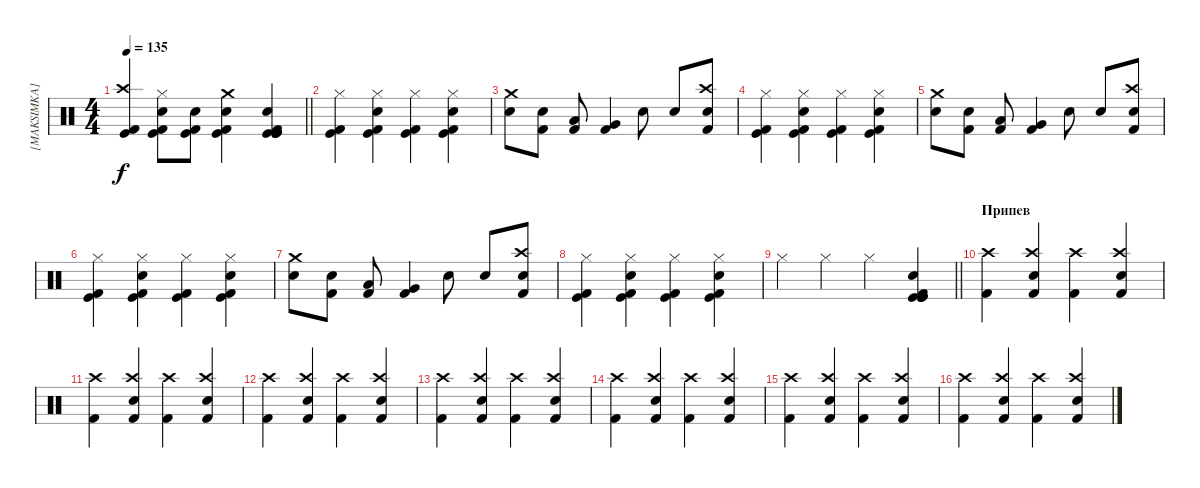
\track ("[MAKSIMKA]" "[MAKSIMKA]") {instrument percussion}
\staff {score}
\articulation defaults
\ts (4 4)
\tempo 135
\clef neutral
\barLineRight lightlight
\ks c
("Kick (hit) 2" "Crash high (hit)" "Kick (hit)").4{dy f} ("Kick (hit) 2" "Snare (hit) 2" "Hi-Hat (closed)" "Kick (hit)").8 ("Kick (hit) 2" "Snare (hit) 2" "Kick (hit)").8 ("Kick (hit) 2" "Snare (hit) 2" "Crash medium (hit)" "Kick (hit)").4 ("Kick (hit) 2" "Snare (hit) 2" "Kick (hit)" "Kick (hit)" "Kick (hit)" "Kick (hit)").4 |
("Kick (hit) 2" "Hi-Hat (closed)" "Kick (hit)").4 ("Kick (hit) 2" "Snare (hit) 2" "Hi-Hat (closed)" "Kick (hit)").4 ("Kick (hit) 2" "Hi-Hat (closed)" "Kick (hit)").4 ("Kick (hit) 2" "Snare (hit) 2" "Hi-Hat (closed)" "Kick (hit)").4 |
("Crash medium (hit)" "Snare (hit) 2").8 ("Kick (hit) 2" "Snare (hit) 2").8 ("Kick (hit) 2" "Low Tom (hit)").8 ("Kick (hit) 2" "Very Low Tom (hit)").4 "Snare (hit) 2".8 "Snare (hit) 2".8 ("Kick (hit) 2" "Crash high (hit)" "Snare (hit) 2").8 |
("Kick (hit) 2" "Hi-Hat (closed)" "Kick (hit)").4 ("Kick (hit) 2" "Snare (hit) 2" "Hi-Hat (closed)" "Kick (hit)").4 ("Kick (hit) 2" "Hi-Hat (closed)" "Kick (hit)").4 ("Kick (hit) 2" "Snare (hit) 2" "Hi-Hat (closed)" "Kick (hit)").4 |
("Crash medium (hit)" "Snare (hit) 2").8 ("Kick (hit) 2" "Snare (hit) 2").8 ("Kick (hit) 2" "Low Tom (hit)").8 ("Kick (hit) 2" "Very Low Tom (hit)").4 "Snare (hit) 2".8 "Snare (hit) 2".8 ("Kick (hit) 2" "Crash high (hit)" "Snare (hit) 2").8 |
("Kick (hit) 2" "Hi-Hat (closed)" "Kick (hit)").4 ("Kick (hit) 2" "Snare (hit) 2" "Hi-Hat (closed)" "Kick (hit)").4 ("Kick (hit) 2" "Hi-Hat (closed)" "Kick (hit)").4 ("Kick (hit) 2" "Snare (hit) 2" "Hi-Hat (closed)" "Kick (hit)").4 |
("Crash medium (hit)" "Snare (hit) 2").8 ("Kick (hit) 2" "Snare (hit) 2").8 ("Kick (hit) 2" "Low Tom (hit)").8 ("Kick (hit) 2" "Very Low Tom (hit)").4 "Snare (hit) 2".8 "Snare (hit) 2".8 ("Kick (hit) 2" "Crash high (hit)" "Snare (hit) 2").8 |
("Kick (hit) 2" "Hi-Hat (closed)" "Kick (hit)").4 ("Kick (hit) 2" "Snare (hit) 2" "Hi-Hat (closed)" "Kick (hit)").4 ("Kick (hit) 2" "Hi-Hat (closed)" "Kick (hit)").4 ("Kick (hit) 2" "Snare (hit) 2" "Hi-Hat (closed)" "Kick (hit)").4 |
\barLineRight lightlight "Hi-Hat (closed)".4 "Hi-Hat (closed)".4 "Hi-Hat (closed)".4
("Kick (hit) 2" "Snare (hit) 2" "Kick (hit)" "Kick (hit)" "Kick (hit)" "Kick (hit)").4 |
\section ("" "Припев")
("Crash high (hit)" "Kick (hit) 2").4 ("Crash high (hit)" "Kick (hit) 2" "Snare (hit) 2").4 ("Crash high (hit)" "Kick (hit) 2").4 ("Crash high (hit)" "Kick (hit) 2" "Snare (hit) 2").4 |
("Crash high (hit)" "Kick (hit) 2").4 ("Crash high (hit)" "Kick (hit) 2" "Snare (hit) 2").4 ("Crash high (hit)" "Kick (hit) 2").4 ("Crash high (hit)" "Kick (hit) 2" "Snare (hit) 2").4 |
("Crash high (hit)" "Kick (hit) 2").4 ("Crash high (hit)" "Kick (hit) 2" "Snare (hit) 2").4 ("Crash high (hit)" "Kick (hit) 2").4 ("Crash high (hit)" "Kick (hit) 2" "Snare (hit) 2").4 |
("Crash high (hit)" "Kick (hit) 2").4 ("Crash high (hit)" "Kick (hit) 2" "Snare (hit) 2").4 ("Crash high (hit)" "Kick (hit) 2").4 ("Crash high (hit)" "Kick (hit) 2" "Snare (hit) 2").4 |
("Crash high (hit)" "Kick (hit) 2").4 ("Crash high (hit)" "Kick (hit) 2" "Snare (hit) 2").4 ("Crash high (hit)" "Kick (hit) 2").4 ("Crash high (hit)" "Kick (hit) 2" "Snare (hit) 2").4 |
("Crash high (hit)" "Kick (hit) 2").4 ("Crash high (hit)" "Kick (hit) 2" "Snare (hit) 2").4 ("Crash high (hit)" "Kick (hit) 2").4 ("Crash high (hit)" "Kick (hit) 2" "Snare (hit) 2").4 |
("Crash high (hit)" "Kick (hit) 2").4 ("Crash high (hit)" "Kick (hit) 2" "Snare (hit) 2").4 ("Crash high (hit)" "Kick (hit) 2").4 ("Crash high (hit)" "Kick (hit) 2" "Snare (hit) 2").4
